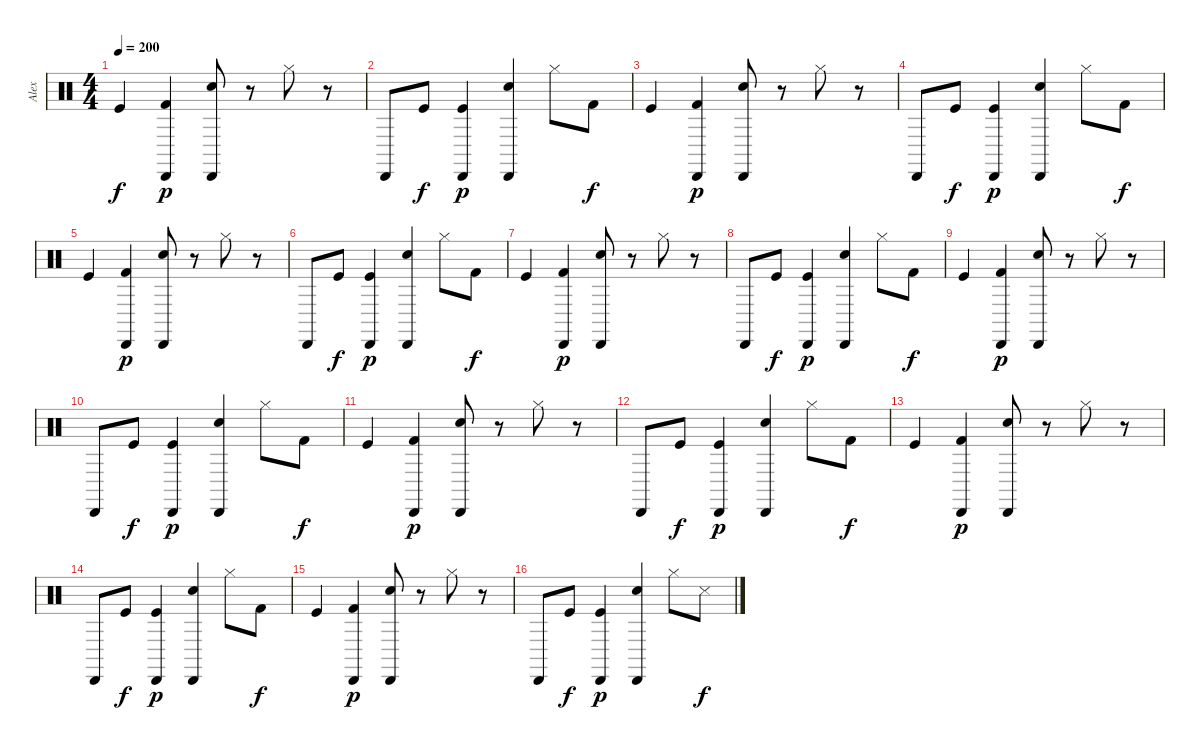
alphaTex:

\track ("Alex" "Alex") {instrument percussion}
\staff {score}
\articulation defaults
\ts (4 4)
\tempo 200
\clef neutral
\ks c "Kick (hit)".4{dy f}
("Kick (hit) 2" "Cabasa (hit)").4{dy p} ("Electric Snare (hit)" "Cabasa (hit)").8 r.8 "Hi-Hat (closed)".8 r.8 |
"Cabasa (hit)".8 "Kick (hit)".8{dy f} ("Kick (hit)" "Cabasa (hit)").4{dy p} ("Electric Snare (hit)" "Cabasa (hit)").4 "Hi-Hat (closed)".8 "Kick (hit) 2".8{dy f} |
"Kick (hit)".4 ("Kick (hit) 2" "Cabasa (hit)").4{dy p} ("Electric Snare (hit)" "Cabasa (hit)").8 r.8 "Hi-Hat (closed)".8 r.8 |
"Cabasa (hit)".8 "Kick (hit)".8{dy f} ("Kick (hit)" "Cabasa (hit)").4{dy p} ("Electric Snare (hit)" "Cabasa (hit)").4 "Hi-Hat (closed)".8 "Kick (hit) 2".8{dy f} |
"Kick (hit)".4 ("Kick (hit) 2" "Cabasa (hit)").4{dy p} ("Electric Snare (hit)" "Cabasa (hit)").8 r.8 "Hi-Hat (closed)".8 r.8 |
"Cabasa (hit)".8 "Kick (hit)".8{dy f} ("Kick (hit)" "Cabasa (hit)").4{dy p} ("Electric Snare (hit)" "Cabasa (hit)").4 "Hi-Hat (closed)".8 "Kick (hit) 2".8{dy f} |
"Kick (hit)".4 ("Kick (hit) 2" "Cabasa (hit)").4{dy p} ("Electric Snare (hit)" "Cabasa (hit)").8 r.8 "Hi-Hat (closed)".8 r.8 |
"Cabasa (hit)".8 "Kick (hit)".8{dy f} ("Kick (hit)" "Cabasa (hit)").4{dy p} ("Electric Snare (hit)" "Cabasa (hit)").4 "Hi-Hat (closed)".8 "Kick (hit) 2".8{dy f} |
"Kick (hit)".4 ("Kick (hit) 2" "Cabasa (hit)").4{dy p} ("Electric Snare (hit)" "Cabasa (hit)").8 r.8 "Hi-Hat (closed)".8 r.8 |
"Cabasa (hit)".8 "Kick (hit)".8{dy f} ("Kick (hit)" "Cabasa (hit)").4{dy p} ("Electric Snare (hit)" "Cabasa (hit)").4 "Hi-Hat (closed)".8 "Kick (hit) 2".8{dy f} |
"Kick (hit)".4 ("Kick (hit) 2" "Cabasa (hit)").4{dy p} ("Electric Snare (hit)" "Cabasa (hit)").8 r.8 "Hi-Hat (closed)".8 r.8 |
"Cabasa (hit)".8 "Kick (hit)".8{dy f} ("Kick (hit)" "Cabasa (hit)").4{dy p} ("Electric Snare (hit)" "Cabasa (hit)").4 "Hi-Hat (closed)".8 "Kick (hit) 2".8{dy f} |
"Kick (hit)".4 ("Kick (hit) 2" "Cabasa (hit)").4{dy p} ("Electric Snare (hit)" "Cabasa (hit)").8 r.8 "Hi-Hat (closed)".8 r.8 |
"Cabasa (hit)".8 "Kick (hit)".8{dy f} ("Kick (hit)" "Cabasa (hit)").4{dy p} ("Electric Snare (hit)" "Cabasa (hit)").4 "Hi-Hat (closed)".8 "Kick (hit) 2".8{dy f} |
"Kick (hit)".4 ("Kick (hit) 2" "Cabasa (hit)").4{dy p} ("Electric Snare (hit)" "Cabasa (hit)").8 r.8 "Hi-Hat (closed)".8 r.8 |
"Cabasa (hit)".8 "Kick (hit)".8{dy f} ("Kick (hit)" "Cabasa (hit)").4{dy p} ("Electric Snare (hit)" "Cabasa (hit)").4 "Hi-Hat (closed)".8 "Metronome (hit)".8{dy f}
